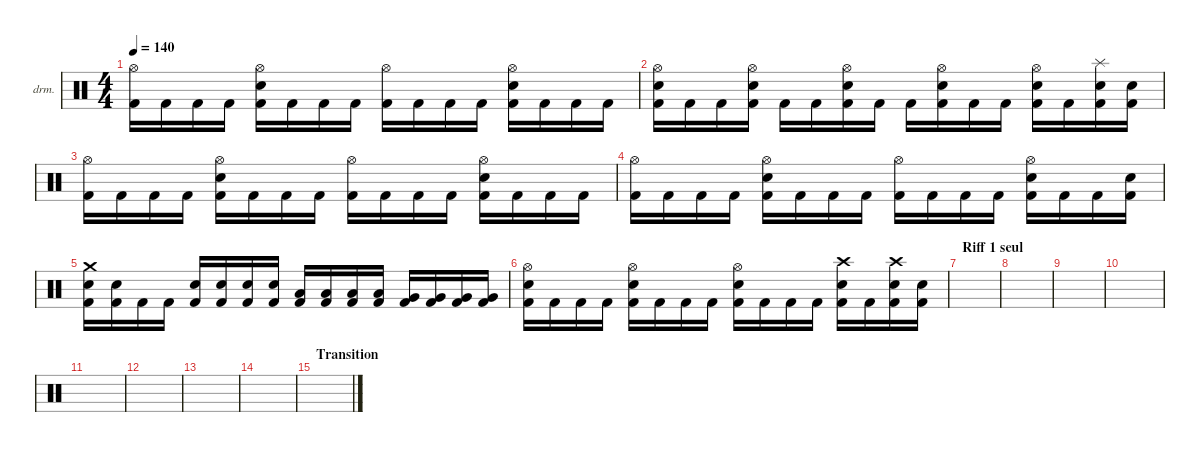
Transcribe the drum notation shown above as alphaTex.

\defaultSystemsLayout 4
\hideDynamics
\bracketExtendMode nobrackets
\firstSystemTrackNameOrientation horizontal
\otherSystemsTrackNameOrientation horizontal
\track ("Drumkit" "drm.") {instrument percussion}
\staff {score}
\articulation defaults
\ts (4 4)
\tempo 140
\clef neutral
\ks c
("Hi-Hat (open)" "Kick (hit) 2").16{dy ff} "Kick (hit) 2".16 "Kick (hit) 2".16 "Kick (hit) 2".16 ("Hi-Hat (open)" "Snare (hit) 2" "Kick (hit) 2").16 "Kick (hit) 2".16 "Kick (hit) 2".16 "Kick (hit) 2".16 ("Hi-Hat (open)" "Kick (hit) 2").16 "Kick (hit) 2".16 "Kick (hit) 2".16 "Kick (hit) 2".16 ("Hi-Hat (open)" "Snare (hit) 2" "Kick (hit) 2").16 "Kick (hit) 2".16 "Kick (hit) 2".16 "Kick (hit) 2".16 |
("Hi-Hat (open)" "Snare (hit) 2" "Kick (hit) 2").16 "Kick (hit) 2".16 "Kick (hit) 2".16 ("Hi-Hat (open)" "Snare (hit) 2" "Kick (hit) 2").16 "Kick (hit) 2".16 "Kick (hit) 2".16 ("Hi-Hat (open)" "Snare (hit) 2" "Kick (hit) 2").16 "Kick (hit) 2".16 "Kick (hit) 2".16 ("Hi-Hat (open)" "Snare (hit) 2" "Kick (hit) 2").16 "Kick (hit) 2".16 "Kick (hit) 2".16 ("Hi-Hat (open)" "Snare (hit) 2" "Kick (hit) 2").16 "Kick (hit) 2".16 ("Splash (hit)" "Snare (hit) 2" "Kick (hit) 2").16 ("Snare (hit) 2" "Kick (hit) 2").16 |
("Hi-Hat (open)" "Kick (hit) 2").16 "Kick (hit) 2".16 "Kick (hit) 2".16 "Kick (hit) 2".16 ("Hi-Hat (open)" "Snare (hit) 2" "Kick (hit) 2").16 "Kick (hit) 2".16 "Kick (hit) 2".16 "Kick (hit) 2".16 ("Hi-Hat (open)" "Kick (hit) 2").16 "Kick (hit) 2".16 "Kick (hit) 2".16 "Kick (hit) 2".16 ("Hi-Hat (open)" "Snare (hit) 2" "Kick (hit) 2").16 "Kick (hit) 2".16 "Kick (hit) 2".16 "Kick (hit) 2".16 |
("Hi-Hat (open)" "Kick (hit) 2").16 "Kick (hit) 2".16 "Kick (hit) 2".16 "Kick (hit) 2".16 ("Hi-Hat (open)" "Snare (hit) 2" "Kick (hit) 2").16 "Kick (hit) 2".16 "Kick (hit) 2".16 "Kick (hit) 2".16 ("Hi-Hat (open)" "Kick (hit) 2").16 "Kick (hit) 2".16 "Kick (hit) 2".16 "Kick (hit) 2".16 ("Hi-Hat (open)" "Snare (hit) 2" "Kick (hit) 2").16 "Kick (hit) 2".16 "Kick (hit) 2".16 ("Snare (hit) 2" "Kick (hit) 2").16 |
("Crash medium (hit)" "Snare (hit) 2" "Kick (hit) 2").16{dy mf} ("Snare (hit) 2" "Kick (hit) 2").16 "Kick (hit) 2".16 "Kick (hit) 2".16 ("Snare (hit) 2" "Kick (hit) 2").16 ("Snare (hit) 2" "Kick (hit) 2").16 ("Snare (hit) 2" "Kick (hit) 2").16 ("Snare (hit) 2" "Kick (hit) 2").16 ("Low Tom (hit)" "Kick (hit) 2").16 ("Low Tom (hit)" "Kick (hit) 2").16 ("Low Tom (hit)" "Kick (hit) 2").16 ("Low Tom (hit)" "Kick (hit) 2").16 ("Very Low Tom (hit)" "Kick (hit) 2").16 ("Very Low Tom (hit)" "Kick (hit) 2").16 ("Very Low Tom (hit)" "Kick (hit) 2").16 ("Very Low Tom (hit)" "Kick (hit) 2").16 |
("Hi-Hat (open)" "Snare (hit) 2" "Kick (hit) 2").16 "Kick (hit) 2".16 "Kick (hit) 2".16 "Kick (hit) 2".16 ("Hi-Hat (open)" "Snare (hit) 2" "Kick (hit) 2").16 "Kick (hit) 2".16 "Kick (hit) 2".16 "Kick (hit) 2".16 ("Hi-Hat (open)" "Snare (hit) 2" "Kick (hit) 2").16 "Kick (hit) 2".16 "Kick (hit) 2".16 "Kick (hit) 2".16 ("Crash high (hit)" "Snare (hit) 2" "Kick (hit) 2").16 "Kick (hit) 2".16 ("Crash high (hit)" "Snare (hit) 2" "Kick (hit) 2").16 ("Snare (hit) 2" "Kick (hit) 2").16 |
\section ("" "Riff 1 seul")
|
|
|
|
|
|
|
|
\section ("" "Transition")
